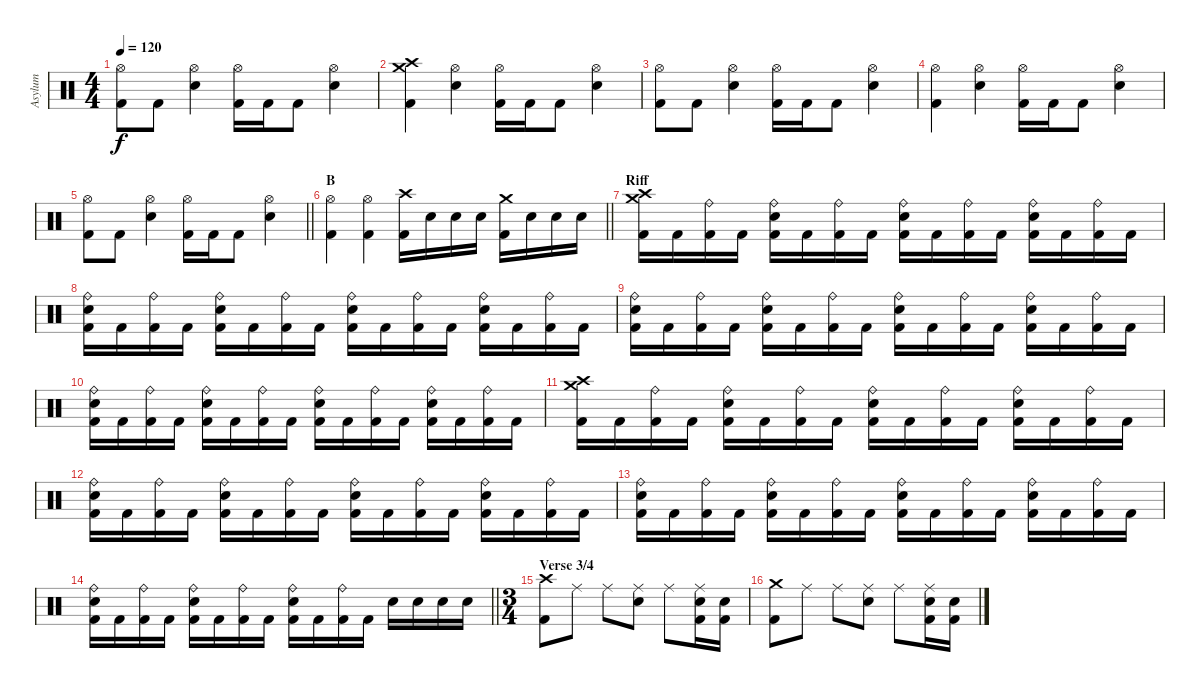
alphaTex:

\track ("Asylum" "Asylum") {instrument percussion}
\staff {score}
\articulation defaults
\ts (4 4)
\tempo 120
\clef neutral
\ks c
("Hi-Hat (open)" "Kick (hit) 2").8{dy f} "Kick (hit) 2".8 ("Hi-Hat (open)" "Electric Snare (hit)").4 ("Hi-Hat (open)" "Kick (hit) 2").16 "Kick (hit) 2".16 "Kick (hit) 2".8 ("Hi-Hat (open)" "Electric Snare (hit)").4 |
("Crash medium (hit)" "Crash high (hit)" "Kick (hit) 2").4 ("Hi-Hat (open)" "Electric Snare (hit)").4 ("Hi-Hat (open)" "Kick (hit) 2").16 "Kick (hit) 2".16 "Kick (hit) 2".8 ("Hi-Hat (open)" "Electric Snare (hit)").4 |
("Hi-Hat (open)" "Kick (hit) 2").8 "Kick (hit) 2".8 ("Hi-Hat (open)" "Electric Snare (hit)").4 ("Hi-Hat (open)" "Kick (hit) 2").16 "Kick (hit) 2".16 "Kick (hit) 2".8 ("Hi-Hat (open)" "Electric Snare (hit)").4 |
("Hi-Hat (open)" "Kick (hit) 2").4 ("Hi-Hat (open)" "Electric Snare (hit)").4 ("Hi-Hat (open)" "Kick (hit) 2").16 "Kick (hit) 2".16 "Kick (hit) 2".8 ("Hi-Hat (open)" "Electric Snare (hit)").4 |
\barLineRight lightlight
("Hi-Hat (open)" "Kick (hit) 2").8 "Kick (hit) 2".8 ("Hi-Hat (open)" "Electric Snare (hit)").4 ("Hi-Hat (open)" "Kick (hit) 2").16 "Kick (hit) 2".16 "Kick (hit) 2".8 ("Hi-Hat (open)" "Electric Snare (hit)").4 |
\section ("" "B")
\barLineRight lightlight
("Hi-Hat (open)" "Kick (hit) 2").4 ("Hi-Hat (open)" "Kick (hit) 2").4 ("Crash high (hit)" "Kick (hit) 2").16 "Electric Snare (hit)".16 "Electric Snare (hit)".16 "Electric Snare (hit)".16 ("Crash medium (hit)" "Kick (hit) 2").16 "Electric Snare (hit)".16 "Electric Snare (hit)".16 "Electric Snare (hit)".16 |
\section ("" "Riff")
("Crash medium (hit)" "Crash high (hit)" "Kick (hit) 2").16 "Kick (hit) 2".16 ("Ride (bell)" "Kick (hit) 2").16 "Kick (hit) 2".16 ("Ride (bell)" "Electric Snare (hit)" "Kick (hit) 2").16 "Kick (hit) 2".16 ("Ride (bell)" "Kick (hit) 2").16 "Kick (hit) 2".16 ("Ride (bell)" "Electric Snare (hit)" "Kick (hit) 2").16 "Kick (hit) 2".16 ("Ride (bell)" "Kick (hit) 2").16 "Kick (hit) 2".16 ("Ride (bell)" "Electric Snare (hit)" "Kick (hit) 2").16 "Kick (hit) 2".16 ("Ride (bell)" "Kick (hit) 2").16 "Kick (hit) 2".16 |
("Ride (bell)" "Electric Snare (hit)" "Kick (hit) 2").16 "Kick (hit) 2".16 ("Ride (bell)" "Kick (hit) 2").16 "Kick (hit) 2".16 ("Ride (bell)" "Electric Snare (hit)" "Kick (hit) 2").16 "Kick (hit) 2".16 ("Ride (bell)" "Kick (hit) 2").16 "Kick (hit) 2".16 ("Ride (bell)" "Electric Snare (hit)" "Kick (hit) 2").16 "Kick (hit) 2".16 ("Ride (bell)" "Kick (hit) 2").16 "Kick (hit) 2".16 ("Ride (bell)" "Electric Snare (hit)" "Kick (hit) 2").16 "Kick (hit) 2".16 ("Ride (bell)" "Kick (hit) 2").16 "Kick (hit) 2".16 |
("Ride (bell)" "Electric Snare (hit)" "Kick (hit) 2").16 "Kick (hit) 2".16 ("Ride (bell)" "Kick (hit) 2").16 "Kick (hit) 2".16 ("Ride (bell)" "Electric Snare (hit)" "Kick (hit) 2").16 "Kick (hit) 2".16 ("Ride (bell)" "Kick (hit) 2").16 "Kick (hit) 2".16 ("Ride (bell)" "Electric Snare (hit)" "Kick (hit) 2").16 "Kick (hit) 2".16 ("Ride (bell)" "Kick (hit) 2").16 "Kick (hit) 2".16 ("Ride (bell)" "Electric Snare (hit)" "Kick (hit) 2").16 "Kick (hit) 2".16 ("Ride (bell)" "Kick (hit) 2").16 "Kick (hit) 2".16 |
("Ride (bell)" "Electric Snare (hit)" "Kick (hit) 2").16 "Kick (hit) 2".16 ("Ride (bell)" "Kick (hit) 2").16 "Kick (hit) 2".16 ("Ride (bell)" "Electric Snare (hit)" "Kick (hit) 2").16 "Kick (hit) 2".16 ("Ride (bell)" "Kick (hit) 2").16 "Kick (hit) 2".16 ("Ride (bell)" "Electric Snare (hit)" "Kick (hit) 2").16 "Kick (hit) 2".16 ("Ride (bell)" "Kick (hit) 2").16 "Kick (hit) 2".16 ("Ride (bell)" "Electric Snare (hit)" "Kick (hit) 2").16 "Kick (hit) 2".16 ("Ride (bell)" "Kick (hit) 2").16 "Kick (hit) 2".16 |
("Crash medium (hit)" "Crash high (hit)" "Kick (hit) 2").16 "Kick (hit) 2".16 ("Ride (bell)" "Kick (hit) 2").16 "Kick (hit) 2".16 ("Ride (bell)" "Electric Snare (hit)" "Kick (hit) 2").16 "Kick (hit) 2".16 ("Ride (bell)" "Kick (hit) 2").16 "Kick (hit) 2".16 ("Ride (bell)" "Electric Snare (hit)" "Kick (hit) 2").16 "Kick (hit) 2".16 ("Ride (bell)" "Kick (hit) 2").16 "Kick (hit) 2".16 ("Ride (bell)" "Electric Snare (hit)" "Kick (hit) 2").16 "Kick (hit) 2".16 ("Ride (bell)" "Kick (hit) 2").16 "Kick (hit) 2".16 |
("Ride (bell)" "Electric Snare (hit)" "Kick (hit) 2").16 "Kick (hit) 2".16 ("Ride (bell)" "Kick (hit) 2").16 "Kick (hit) 2".16 ("Ride (bell)" "Electric Snare (hit)" "Kick (hit) 2").16 "Kick (hit) 2".16 ("Ride (bell)" "Kick (hit) 2").16 "Kick (hit) 2".16 ("Ride (bell)" "Electric Snare (hit)" "Kick (hit) 2").16 "Kick (hit) 2".16 ("Ride (bell)" "Kick (hit) 2").16 "Kick (hit) 2".16 ("Ride (bell)" "Electric Snare (hit)" "Kick (hit) 2").16 "Kick (hit) 2".16 ("Ride (bell)" "Kick (hit) 2").16 "Kick (hit) 2".16 |
("Ride (bell)" "Electric Snare (hit)" "Kick (hit) 2").16 "Kick (hit) 2".16 ("Ride (bell)" "Kick (hit) 2").16 "Kick (hit) 2".16 ("Ride (bell)" "Electric Snare (hit)" "Kick (hit) 2").16 "Kick (hit) 2".16 ("Ride (bell)" "Kick (hit) 2").16 "Kick (hit) 2".16 ("Ride (bell)" "Electric Snare (hit)" "Kick (hit) 2").16 "Kick (hit) 2".16 ("Ride (bell)" "Kick (hit) 2").16 "Kick (hit) 2".16 ("Ride (bell)" "Electric Snare (hit)" "Kick (hit) 2").16 "Kick (hit) 2".16 ("Ride (bell)" "Kick (hit) 2").16 "Kick (hit) 2".16 |
\barLineRight lightlight
("Ride (bell)" "Electric Snare (hit)" "Kick (hit) 2").16 "Kick (hit) 2".16 ("Ride (bell)" "Kick (hit) 2").16 "Kick (hit) 2".16 ("Ride (bell)" "Electric Snare (hit)" "Kick (hit) 2").16 "Kick (hit) 2".16 ("Ride (bell)" "Kick (hit) 2").16 "Kick (hit) 2".16 ("Ride (bell)" "Electric Snare (hit)" "Kick (hit) 2").16 "Kick (hit) 2".16 ("Ride (bell)" "Kick (hit) 2").16 "Kick (hit) 2".16 "Electric Snare (hit)".16 "Electric Snare (hit)".16 "Electric Snare (hit)".16 "Electric Snare (hit)".16 |
\ts (3 4)
\section ("" "Verse 3/4")
("Crash high (hit)" "Kick (hit) 2").8 "Ride (middle)".8 "Ride (middle)".8 ("Ride (middle)" "Electric Snare (hit)").8 "Ride (middle)".8 ("Ride (middle)" "Electric Snare (hit)" "Kick (hit) 2").16 ("Electric Snare (hit)" "Kick (hit) 2").16 |
("Crash medium (hit)" "Kick (hit) 2").8 "Ride (middle)".8 "Ride (middle)".8 ("Ride (middle)" "Electric Snare (hit)").8 "Ride (middle)".8 ("Ride (middle)" "Electric Snare (hit)" "Kick (hit) 2").16 ("Electric Snare (hit)" "Kick (hit) 2").16
